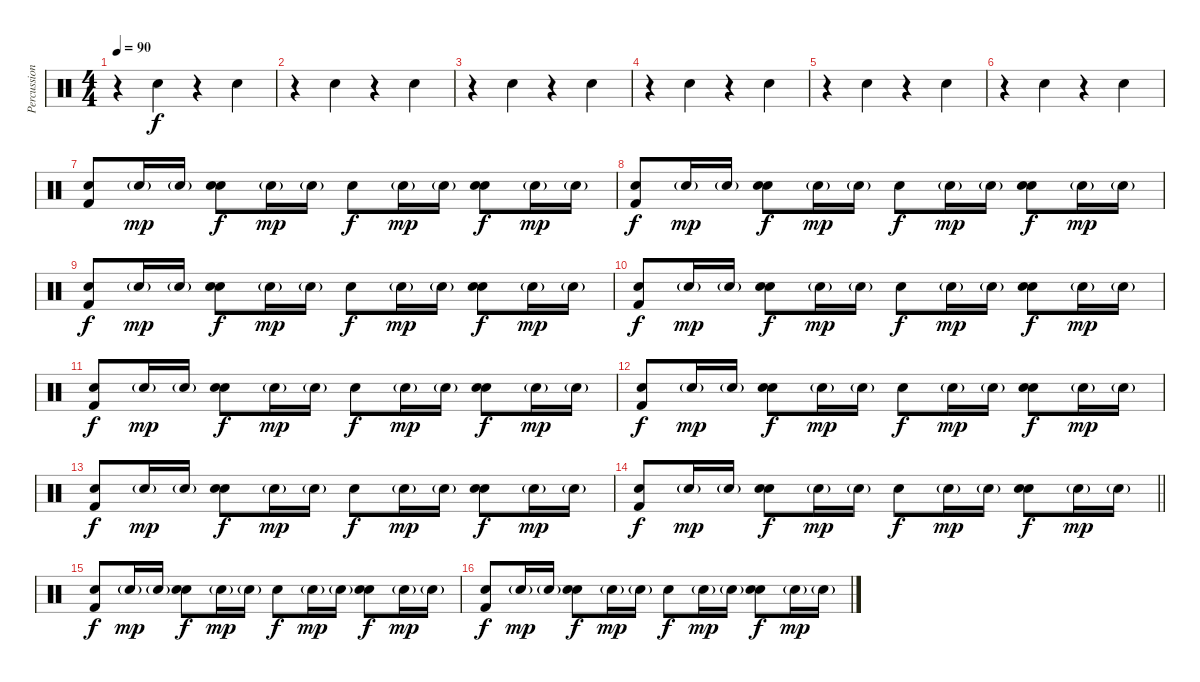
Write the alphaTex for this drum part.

\track ("Percussion" "Percussion") {instrument percussion}
\staff {score}
\articulation defaults
\ts (4 4)
\tempo 90
\clef neutral
\ks c
r.4{dy f} "Hand Clap (hit)".4 r.4 "Hand Clap (hit)".4 |
r.4 "Hand Clap (hit)".4 r.4 "Hand Clap (hit)".4 |
r.4 "Hand Clap (hit)".4 r.4 "Hand Clap (hit)".4 |
r.4 "Hand Clap (hit)".4 r.4 "Hand Clap (hit)".4 |
r.4 "Hand Clap (hit)".4 r.4 "Hand Clap (hit)".4 |
r.4 "Hand Clap (hit)".4 r.4 "Hand Clap (hit)".4 |
("Snare (hit) 2" "Kick (hit) 2").8 "Snare (hit) 2"{g}.16{dy mp} "Snare (hit) 2"{g}.16 ("Hand Clap (hit)" "Snare (hit) 2").8{dy f} "Snare (hit) 2"{g}.16{dy mp} "Snare (hit) 2"{g}.16 "Snare (hit) 2".8{dy f} "Snare (hit) 2"{g}.16{dy mp} "Snare (hit) 2"{g}.16 ("Hand Clap (hit)" "Snare (hit) 2").8{dy f} "Snare (hit) 2"{g}.16{dy mp} "Snare (hit) 2"{g}.16 |
("Snare (hit) 2" "Kick (hit) 2").8{dy f} "Snare (hit) 2"{g}.16{dy mp} "Snare (hit) 2"{g}.16 ("Hand Clap (hit)" "Snare (hit) 2").8{dy f} "Snare (hit) 2"{g}.16{dy mp} "Snare (hit) 2"{g}.16 "Snare (hit) 2".8{dy f} "Snare (hit) 2"{g}.16{dy mp} "Snare (hit) 2"{g}.16 ("Hand Clap (hit)" "Snare (hit) 2").8{dy f} "Snare (hit) 2"{g}.16{dy mp} "Snare (hit) 2"{g}.16 |
("Snare (hit) 2" "Kick (hit) 2").8{dy f} "Snare (hit) 2"{g}.16{dy mp} "Snare (hit) 2"{g}.16 ("Hand Clap (hit)" "Snare (hit) 2").8{dy f} "Snare (hit) 2"{g}.16{dy mp} "Snare (hit) 2"{g}.16 "Snare (hit) 2".8{dy f} "Snare (hit) 2"{g}.16{dy mp} "Snare (hit) 2"{g}.16 ("Hand Clap (hit)" "Snare (hit) 2").8{dy f} "Snare (hit) 2"{g}.16{dy mp} "Snare (hit) 2"{g}.16 |
("Snare (hit) 2" "Kick (hit) 2").8{dy f} "Snare (hit) 2"{g}.16{dy mp} "Snare (hit) 2"{g}.16 ("Hand Clap (hit)" "Snare (hit) 2").8{dy f} "Snare (hit) 2"{g}.16{dy mp} "Snare (hit) 2"{g}.16 "Snare (hit) 2".8{dy f} "Snare (hit) 2"{g}.16{dy mp} "Snare (hit) 2"{g}.16 ("Hand Clap (hit)" "Snare (hit) 2").8{dy f} "Snare (hit) 2"{g}.16{dy mp} "Snare (hit) 2"{g}.16 |
("Snare (hit) 2" "Kick (hit) 2").8{dy f} "Snare (hit) 2"{g}.16{dy mp} "Snare (hit) 2"{g}.16 ("Hand Clap (hit)" "Snare (hit) 2").8{dy f} "Snare (hit) 2"{g}.16{dy mp} "Snare (hit) 2"{g}.16 "Snare (hit) 2".8{dy f} "Snare (hit) 2"{g}.16{dy mp} "Snare (hit) 2"{g}.16 ("Hand Clap (hit)" "Snare (hit) 2").8{dy f} "Snare (hit) 2"{g}.16{dy mp} "Snare (hit) 2"{g}.16 |
("Snare (hit) 2" "Kick (hit) 2").8{dy f} "Snare (hit) 2"{g}.16{dy mp} "Snare (hit) 2"{g}.16 ("Hand Clap (hit)" "Snare (hit) 2").8{dy f} "Snare (hit) 2"{g}.16{dy mp} "Snare (hit) 2"{g}.16 "Snare (hit) 2".8{dy f} "Snare (hit) 2"{g}.16{dy mp} "Snare (hit) 2"{g}.16 ("Hand Clap (hit)" "Snare (hit) 2").8{dy f} "Snare (hit) 2"{g}.16{dy mp} "Snare (hit) 2"{g}.16 |
("Snare (hit) 2" "Kick (hit) 2").8{dy f} "Snare (hit) 2"{g}.16{dy mp} "Snare (hit) 2"{g}.16 ("Hand Clap (hit)" "Snare (hit) 2").8{dy f} "Snare (hit) 2"{g}.16{dy mp} "Snare (hit) 2"{g}.16 "Snare (hit) 2".8{dy f} "Snare (hit) 2"{g}.16{dy mp} "Snare (hit) 2"{g}.16 ("Hand Clap (hit)" "Snare (hit) 2").8{dy f} "Snare (hit) 2"{g}.16{dy mp} "Snare (hit) 2"{g}.16 |
\barLineRight lightlight
("Snare (hit) 2" "Kick (hit) 2").8{dy f} "Snare (hit) 2"{g}.16{dy mp} "Snare (hit) 2"{g}.16 ("Hand Clap (hit)" "Snare (hit) 2").8{dy f} "Snare (hit) 2"{g}.16{dy mp} "Snare (hit) 2"{g}.16 "Snare (hit) 2".8{dy f} "Snare (hit) 2"{g}.16{dy mp} "Snare (hit) 2"{g}.16 ("Hand Clap (hit)" "Snare (hit) 2").8{dy f} "Snare (hit) 2"{g}.16{dy mp} "Snare (hit) 2"{g}.16 |
("Snare (hit) 2" "Kick (hit) 2").8{dy f} "Snare (hit) 2"{g}.16{dy mp} "Snare (hit) 2"{g}.16 ("Hand Clap (hit)" "Snare (hit) 2").8{dy f} "Snare (hit) 2"{g}.16{dy mp} "Snare (hit) 2"{g}.16 "Snare (hit) 2".8{dy f} "Snare (hit) 2"{g}.16{dy mp} "Snare (hit) 2"{g}.16 ("Hand Clap (hit)" "Snare (hit) 2").8{dy f} "Snare (hit) 2"{g}.16{dy mp} "Snare (hit) 2"{g}.16 |
("Snare (hit) 2" "Kick (hit) 2").8{dy f} "Snare (hit) 2"{g}.16{dy mp} "Snare (hit) 2"{g}.16 ("Hand Clap (hit)" "Snare (hit) 2").8{dy f} "Snare (hit) 2"{g}.16{dy mp} "Snare (hit) 2"{g}.16 "Snare (hit) 2".8{dy f} "Snare (hit) 2"{g}.16{dy mp} "Snare (hit) 2"{g}.16 ("Hand Clap (hit)" "Snare (hit) 2").8{dy f} "Snare (hit) 2"{g}.16{dy mp} "Snare (hit) 2"{g}.16
